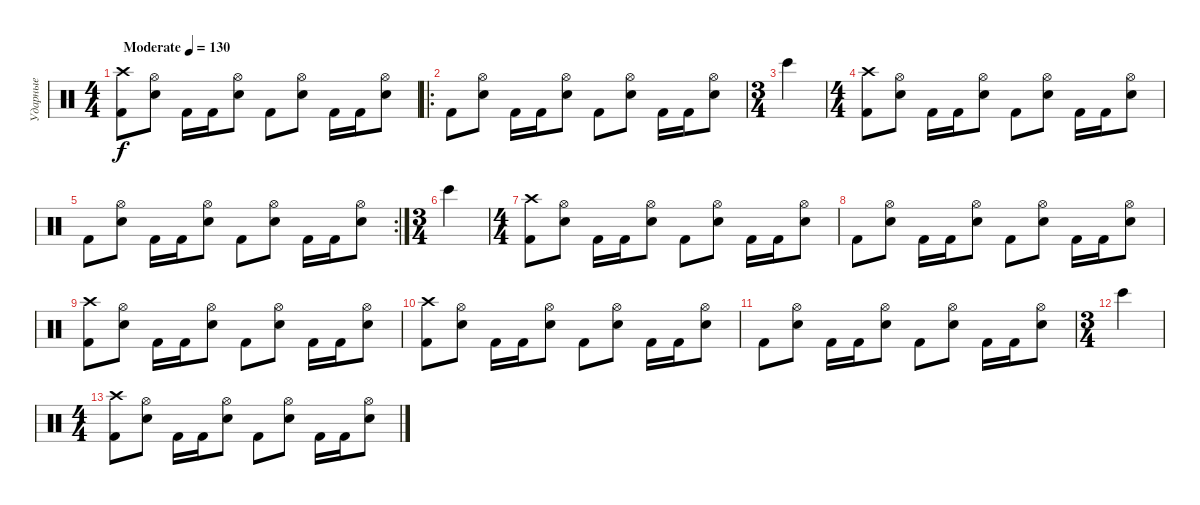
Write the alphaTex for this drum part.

\track ("Ударные" "Ударные") {instrument percussion}
\staff {score}
\articulation defaults
\ts (4 4)
\tempo (130 "Moderate")
\clef neutral
\ks c
("Crash high (hit)" "Kick (hit) 2").8{dy f} ("Hi-Hat (open)" "Snare (hit) 2").8 "Kick (hit) 2".16 "Kick (hit) 2".16 ("Hi-Hat (open)" "Snare (hit) 2").8 "Kick (hit) 2".8 ("Hi-Hat (open)" "Snare (hit) 2").8 "Kick (hit) 2".16 "Kick (hit) 2".16 ("Hi-Hat (open)" "Snare (hit) 2").8 |
\ro "Kick (hit) 2".8
("Hi-Hat (open)" "Snare (hit) 2").8 "Kick (hit) 2".16 "Kick (hit) 2".16 ("Hi-Hat (open)" "Snare (hit) 2").8 "Kick (hit) 2".8 ("Hi-Hat (open)" "Snare (hit) 2").8 "Kick (hit) 2".16 "Kick (hit) 2".16 ("Hi-Hat (open)" "Snare (hit) 2").8 |
\ts (3 4)
"Bongo High (hit)".4 |
\ts (4 4)
("Crash high (hit)" "Kick (hit) 2").8 ("Hi-Hat (open)" "Snare (hit) 2").8 "Kick (hit) 2".16 "Kick (hit) 2".16 ("Hi-Hat (open)" "Snare (hit) 2").8 "Kick (hit) 2".8 ("Hi-Hat (open)" "Snare (hit) 2").8 "Kick (hit) 2".16 "Kick (hit) 2".16 ("Hi-Hat (open)" "Snare (hit) 2").8 |
\rc 2 "Kick (hit) 2".8
("Hi-Hat (open)" "Snare (hit) 2").8 "Kick (hit) 2".16 "Kick (hit) 2".16 ("Hi-Hat (open)" "Snare (hit) 2").8 "Kick (hit) 2".8 ("Hi-Hat (open)" "Snare (hit) 2").8 "Kick (hit) 2".16 "Kick (hit) 2".16 ("Hi-Hat (open)" "Snare (hit) 2").8 |
\ts (3 4)
"Bongo High (hit)".4 |
\ts (4 4)
("Crash high (hit)" "Kick (hit) 2").8 ("Hi-Hat (open)" "Snare (hit) 2").8 "Kick (hit) 2".16 "Kick (hit) 2".16 ("Hi-Hat (open)" "Snare (hit) 2").8 "Kick (hit) 2".8 ("Hi-Hat (open)" "Snare (hit) 2").8 "Kick (hit) 2".16 "Kick (hit) 2".16 ("Hi-Hat (open)" "Snare (hit) 2").8 |
"Kick (hit) 2".8 ("Hi-Hat (open)" "Snare (hit) 2").8 "Kick (hit) 2".16 "Kick (hit) 2".16 ("Hi-Hat (open)" "Snare (hit) 2").8 "Kick (hit) 2".8 ("Hi-Hat (open)" "Snare (hit) 2").8 "Kick (hit) 2".16 "Kick (hit) 2".16 ("Hi-Hat (open)" "Snare (hit) 2").8 |
("Crash high (hit)" "Kick (hit) 2").8 ("Hi-Hat (open)" "Snare (hit) 2").8 "Kick (hit) 2".16 "Kick (hit) 2".16 ("Hi-Hat (open)" "Snare (hit) 2").8 "Kick (hit) 2".8 ("Hi-Hat (open)" "Snare (hit) 2").8 "Kick (hit) 2".16 "Kick (hit) 2".16 ("Hi-Hat (open)" "Snare (hit) 2").8 |
("Crash high (hit)" "Kick (hit) 2").8 ("Hi-Hat (open)" "Snare (hit) 2").8 "Kick (hit) 2".16 "Kick (hit) 2".16 ("Hi-Hat (open)" "Snare (hit) 2").8 "Kick (hit) 2".8 ("Hi-Hat (open)" "Snare (hit) 2").8 "Kick (hit) 2".16 "Kick (hit) 2".16 ("Hi-Hat (open)" "Snare (hit) 2").8 |
"Kick (hit) 2".8 ("Hi-Hat (open)" "Snare (hit) 2").8 "Kick (hit) 2".16 "Kick (hit) 2".16 ("Hi-Hat (open)" "Snare (hit) 2").8 "Kick (hit) 2".8 ("Hi-Hat (open)" "Snare (hit) 2").8 "Kick (hit) 2".16 "Kick (hit) 2".16 ("Hi-Hat (open)" "Snare (hit) 2").8 |
\ts (3 4)
"Bongo High (hit)".4 |
\ts (4 4)
("Crash high (hit)" "Kick (hit) 2").8 ("Hi-Hat (open)" "Snare (hit) 2").8 "Kick (hit) 2".16 "Kick (hit) 2".16 ("Hi-Hat (open)" "Snare (hit) 2").8 "Kick (hit) 2".8 ("Hi-Hat (open)" "Snare (hit) 2").8 "Kick (hit) 2".16 "Kick (hit) 2".16 ("Hi-Hat (open)" "Snare (hit) 2").8
